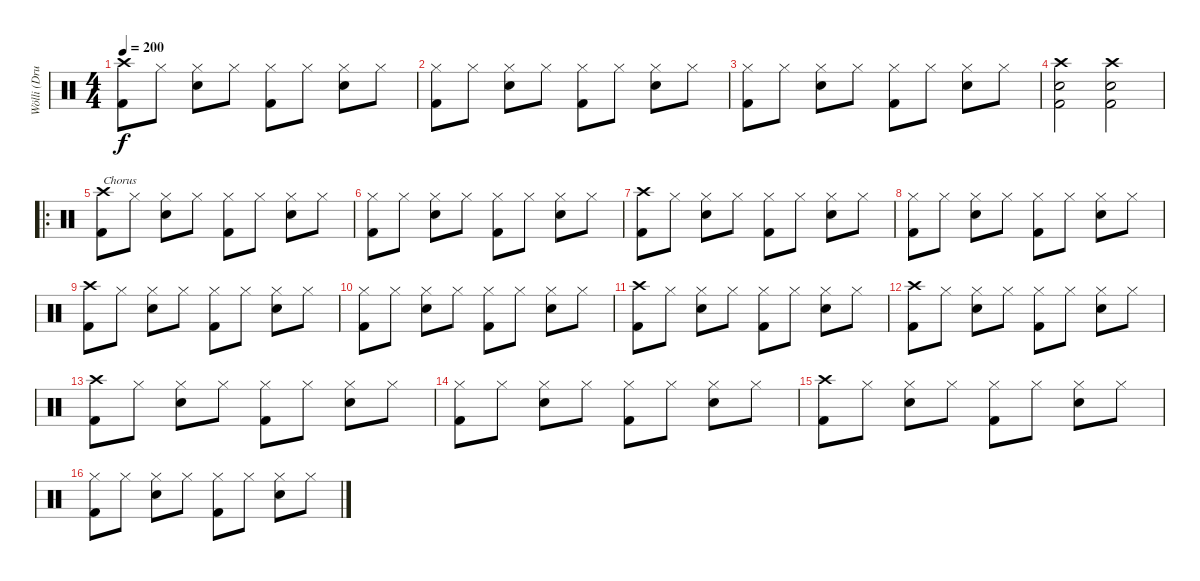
\track ("Wölli (Drums)" "Wölli (Dru") {instrument percussion}
\staff {score}
\articulation defaults
\ts (4 4)
\tempo 200
\clef neutral
\ks c
("Crash high (hit)" "Kick (hit) 2").8{dy f} "Hi-Hat (closed)".8 ("Hi-Hat (closed)" "Snare (hit) 2").8 "Hi-Hat (closed)".8 ("Hi-Hat (closed)" "Kick (hit) 2").8 "Hi-Hat (closed)".8 ("Hi-Hat (closed)" "Snare (hit) 2").8 "Hi-Hat (closed)".8 |
("Hi-Hat (closed)" "Kick (hit) 2").8 "Hi-Hat (closed)".8 ("Hi-Hat (closed)" "Snare (hit) 2").8 "Hi-Hat (closed)".8 ("Hi-Hat (closed)" "Kick (hit) 2").8 "Hi-Hat (closed)".8 ("Hi-Hat (closed)" "Snare (hit) 2").8 "Hi-Hat (closed)".8 |
("Hi-Hat (closed)" "Kick (hit) 2").8 "Hi-Hat (closed)".8 ("Hi-Hat (closed)" "Snare (hit) 2").8 "Hi-Hat (closed)".8 ("Hi-Hat (closed)" "Kick (hit) 2").8 "Hi-Hat (closed)".8 ("Hi-Hat (closed)" "Snare (hit) 2").8 "Hi-Hat (closed)".8 |
("Crash high (hit)" "Snare (hit) 2" "Kick (hit) 2").2 ("Crash high (hit)" "Snare (hit) 2" "Kick (hit) 2").2 |
\ro
("Crash high (hit)" "Kick (hit) 2").8{txt "Chorus"} "Hi-Hat (closed)".8 ("Hi-Hat (closed)" "Snare (hit) 2").8 "Hi-Hat (closed)".8 ("Hi-Hat (closed)" "Kick (hit) 2").8 "Hi-Hat (closed)".8 ("Hi-Hat (closed)" "Snare (hit) 2").8 "Hi-Hat (closed)".8 |
("Hi-Hat (closed)" "Kick (hit) 2").8 "Hi-Hat (closed)".8 ("Hi-Hat (closed)" "Snare (hit) 2").8 "Hi-Hat (closed)".8 ("Hi-Hat (closed)" "Kick (hit) 2").8 "Hi-Hat (closed)".8 ("Hi-Hat (closed)" "Snare (hit) 2").8 "Hi-Hat (closed)".8 |
("Crash high (hit)" "Kick (hit) 2").8 "Hi-Hat (closed)".8 ("Hi-Hat (closed)" "Snare (hit) 2").8 "Hi-Hat (closed)".8 ("Hi-Hat (closed)" "Kick (hit) 2").8 "Hi-Hat (closed)".8 ("Hi-Hat (closed)" "Snare (hit) 2").8 "Hi-Hat (closed)".8 |
("Hi-Hat (closed)" "Kick (hit) 2").8 "Hi-Hat (closed)".8 ("Hi-Hat (closed)" "Snare (hit) 2").8 "Hi-Hat (closed)".8 ("Hi-Hat (closed)" "Kick (hit) 2").8 "Hi-Hat (closed)".8 ("Hi-Hat (closed)" "Snare (hit) 2").8 "Hi-Hat (closed)".8 |
("Crash high (hit)" "Kick (hit) 2").8 "Hi-Hat (closed)".8 ("Hi-Hat (closed)" "Snare (hit) 2").8 "Hi-Hat (closed)".8 ("Hi-Hat (closed)" "Kick (hit) 2").8 "Hi-Hat (closed)".8 ("Hi-Hat (closed)" "Snare (hit) 2").8 "Hi-Hat (closed)".8 |
("Hi-Hat (closed)" "Kick (hit) 2").8 "Hi-Hat (closed)".8 ("Hi-Hat (closed)" "Snare (hit) 2").8 "Hi-Hat (closed)".8 ("Hi-Hat (closed)" "Kick (hit) 2").8 "Hi-Hat (closed)".8 ("Hi-Hat (closed)" "Snare (hit) 2").8 "Hi-Hat (closed)".8 |
("Crash high (hit)" "Kick (hit) 2").8 "Hi-Hat (closed)".8 ("Hi-Hat (closed)" "Snare (hit) 2").8 "Hi-Hat (closed)".8 ("Hi-Hat (closed)" "Kick (hit) 2").8 "Hi-Hat (closed)".8 ("Hi-Hat (closed)" "Snare (hit) 2").8 "Hi-Hat (closed)".8 |
("Crash high (hit)" "Kick (hit) 2").8 "Hi-Hat (closed)".8 ("Hi-Hat (closed)" "Snare (hit) 2").8 "Hi-Hat (closed)".8 ("Hi-Hat (closed)" "Kick (hit) 2").8 "Hi-Hat (closed)".8 ("Hi-Hat (closed)" "Snare (hit) 2").8 "Hi-Hat (closed)".8 |
("Crash high (hit)" "Kick (hit) 2").8 "Hi-Hat (closed)".8 ("Hi-Hat (closed)" "Snare (hit) 2").8 "Hi-Hat (closed)".8 ("Hi-Hat (closed)" "Kick (hit) 2").8 "Hi-Hat (closed)".8 ("Hi-Hat (closed)" "Snare (hit) 2").8 "Hi-Hat (closed)".8 |
("Hi-Hat (closed)" "Kick (hit) 2").8 "Hi-Hat (closed)".8 ("Hi-Hat (closed)" "Snare (hit) 2").8 "Hi-Hat (closed)".8 ("Hi-Hat (closed)" "Kick (hit) 2").8 "Hi-Hat (closed)".8 ("Hi-Hat (closed)" "Snare (hit) 2").8 "Hi-Hat (closed)".8 |
("Crash high (hit)" "Kick (hit) 2").8 "Hi-Hat (closed)".8 ("Hi-Hat (closed)" "Snare (hit) 2").8 "Hi-Hat (closed)".8 ("Hi-Hat (closed)" "Kick (hit) 2").8 "Hi-Hat (closed)".8 ("Hi-Hat (closed)" "Snare (hit) 2").8 "Hi-Hat (closed)".8 |
("Hi-Hat (closed)" "Kick (hit) 2").8 "Hi-Hat (closed)".8 ("Hi-Hat (closed)" "Snare (hit) 2").8 "Hi-Hat (closed)".8 ("Hi-Hat (closed)" "Kick (hit) 2").8 "Hi-Hat (closed)".8 ("Hi-Hat (closed)" "Snare (hit) 2").8 "Hi-Hat (closed)".8
